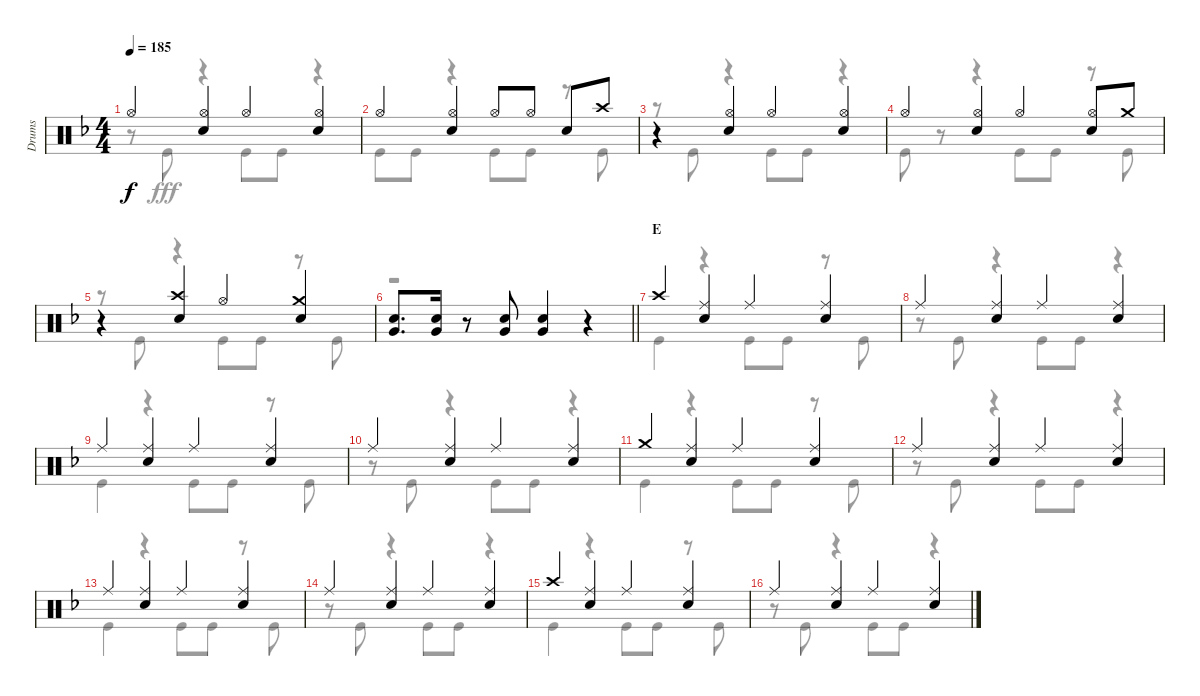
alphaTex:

\track ("Drums" "Drums") {instrument percussion}
\staff {score}
\articulation defaults
\voice
\ts (4 4)
\tempo 185
\clef neutral
\ks f "Hi-Hat (open)".4{dy f}
("Hi-Hat (open)" "Snare (hit) 2").4 "Hi-Hat (open)".4 ("Hi-Hat (open)" "Snare (hit) 2").4 |
"Hi-Hat (open)".4 ("Hi-Hat (open)" "Snare (hit) 2").4 "Hi-Hat (open)".8 "Hi-Hat (open)".8 "Snare (hit) 2".8 "Crash high (hit)".8 |
r.4 ("Hi-Hat (open)" "Snare (hit) 2").4 "Hi-Hat (open)".4 ("Hi-Hat (open)" "Snare (hit) 2").4 |
"Hi-Hat (open)".4 ("Hi-Hat (open)" "Snare (hit) 2").4 "Hi-Hat (open)".4 ("Hi-Hat (open)" "Snare (hit) 2").8 "Crash medium (hit)".8 |
r.4 ("Crash high (hit)" "Snare (hit) 2").4 "Hi-Hat (open)".4 ("Crash medium (hit)" "Snare (hit) 2").4 |
\barLineRight lightlight
("Snare (hit) 2" "Very Low Tom (hit)").8{d} ("Snare (hit) 2" "Very Low Tom (hit)").16 r.8 ("Snare (hit) 2" "Very Low Tom (hit)").8 ("Snare (hit) 2" "Very Low Tom (hit)").4 r.4 |
\section ("" "E")
"Crash high (hit)".4 ("Ride (middle)" "Snare (hit) 2").4 "Ride (middle)".4 ("Ride (middle)" "Snare (hit) 2").4 |
"Ride (middle)".4 ("Ride (middle)" "Snare (hit) 2").4 "Ride (middle)".4 ("Ride (middle)" "Snare (hit) 2").4 |
"Ride (middle)".4 ("Ride (middle)" "Snare (hit) 2").4 "Ride (middle)".4 ("Ride (middle)" "Snare (hit) 2").4 |
"Ride (middle)".4 ("Ride (middle)" "Snare (hit) 2").4 "Ride (middle)".4 ("Ride (middle)" "Snare (hit) 2").4 |
"Crash medium (hit)".4 ("Ride (middle)" "Snare (hit) 2").4 "Ride (middle)".4 ("Ride (middle)" "Snare (hit) 2").4 |
"Ride (middle)".4 ("Ride (middle)" "Snare (hit) 2").4 "Ride (middle)".4 ("Ride (middle)" "Snare (hit) 2").4 |
"Ride (middle)".4 ("Ride (middle)" "Snare (hit) 2").4 "Ride (middle)".4 ("Ride (middle)" "Snare (hit) 2").4 |
"Ride (middle)".4 ("Ride (middle)" "Snare (hit) 2").4 "Ride (middle)".4 ("Ride (middle)" "Snare (hit) 2").4 |
"Crash high (hit)".4 ("Ride (middle)" "Snare (hit) 2").4 "Ride (middle)".4 ("Ride (middle)" "Snare (hit) 2").4 |
"Ride (middle)".4 ("Ride (middle)" "Snare (hit) 2").4 "Ride (middle)".4 ("Ride (middle)" "Snare (hit) 2").4
\voice
\clef neutral
\ottava regular
\simile none
\ks f
r.8{dy fff} "Kick (hit)".8 r.4 "Kick (hit)".8 "Kick (hit)".8 r.4 |
"Kick (hit)".8 "Kick (hit)".8 r.4 "Kick (hit)".8 "Kick (hit)".8 r.8 "Kick (hit)".8 |
r.8 "Kick (hit)".8 r.4 "Kick (hit)".8 "Kick (hit)".8 r.4 |
"Kick (hit)".8 r.8 r.4 "Kick (hit)".8 "Kick (hit)".8 r.8 "Kick (hit)".8 |
r.8 "Kick (hit)".8 r.4 "Kick (hit)".8 "Kick (hit)".8 r.8 "Kick (hit)".8 |
\barLineRight lightlight
r.1 |
"Kick (hit)".4 r.4 "Kick (hit)".8 "Kick (hit)".8 r.8 "Kick (hit)".8 |
r.8 "Kick (hit)".8 r.4 "Kick (hit)".8 "Kick (hit)".8 r.4 |
"Kick (hit)".4 r.4 "Kick (hit)".8 "Kick (hit)".8 r.8 "Kick (hit)".8 |
r.8 "Kick (hit)".8 r.4 "Kick (hit)".8 "Kick (hit)".8 r.4 |
"Kick (hit)".4 r.4 "Kick (hit)".8 "Kick (hit)".8 r.8 "Kick (hit)".8 |
r.8 "Kick (hit)".8 r.4 "Kick (hit)".8 "Kick (hit)".8 r.4 |
"Kick (hit)".4 r.4 "Kick (hit)".8 "Kick (hit)".8 r.8 "Kick (hit)".8 |
r.8 "Kick (hit)".8 r.4 "Kick (hit)".8 "Kick (hit)".8 r.4 |
"Kick (hit)".4 r.4 "Kick (hit)".8 "Kick (hit)".8 r.8 "Kick (hit)".8 |
r.8 "Kick (hit)".8 r.4 "Kick (hit)".8 "Kick (hit)".8 r.4
